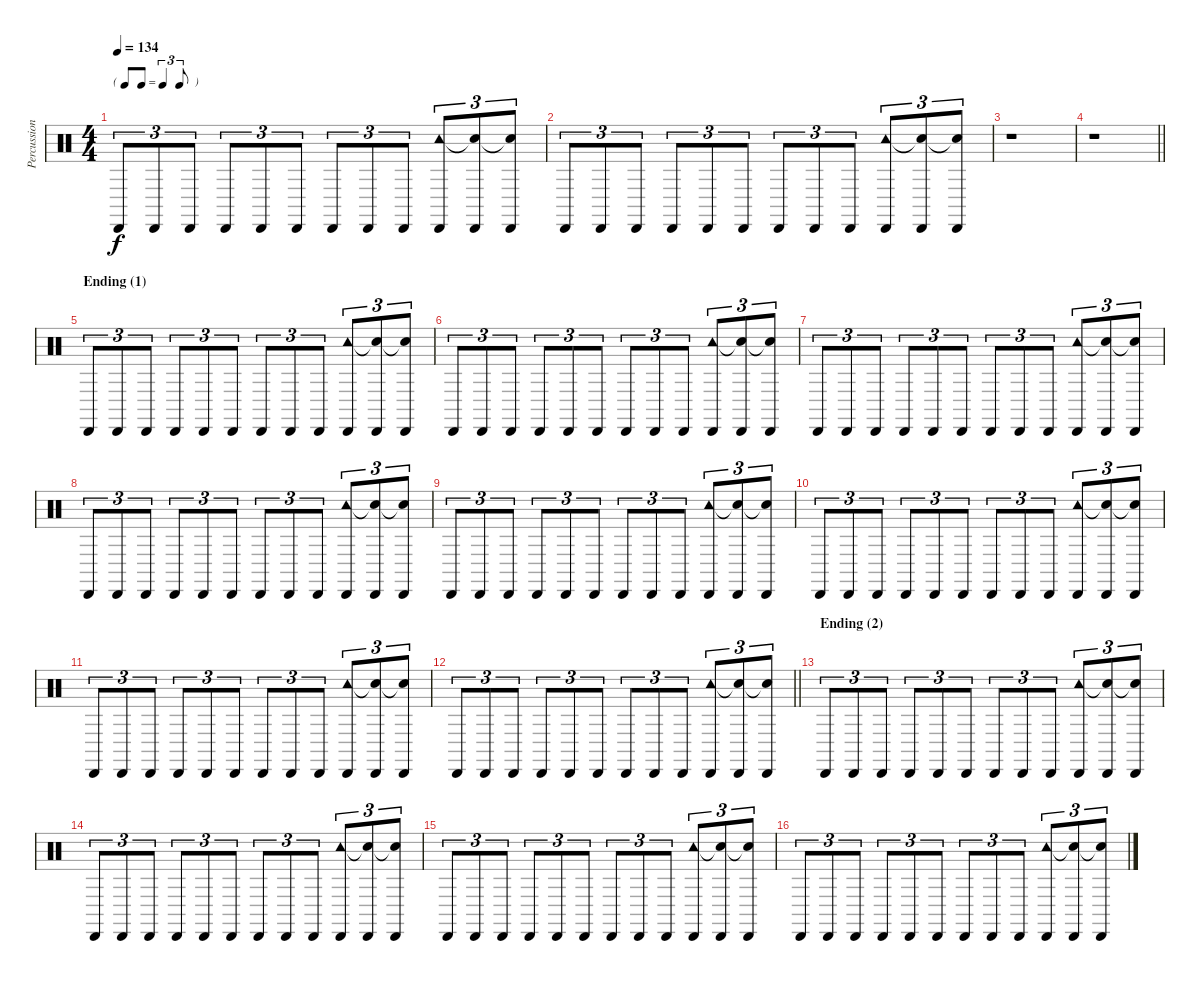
\track ("Percussion" "Percussion") {instrument percussion}
\staff {score}
\articulation defaults
\ts (4 4)
\tf triplet8th
\tempo 134
\clef neutral
\ks c "Cabasa (hit)".8{tu (3 2) dy f} "Cabasa (hit)".8{tu (3 2)} "Cabasa (hit)".8{tu (3 2)} "Cabasa (hit)".8{tu (3 2)} "Cabasa (hit)".8{tu (3 2)} "Cabasa (hit)".8{tu (3 2)} "Cabasa (hit)".8{tu (3 2)} "Cabasa (hit)".8{tu (3 2)} "Cabasa (hit)".8{tu (3 2)}
("Cabasa (hit)" "Tambourine (hit)").8{tu (3 2)} ("Cabasa (hit)" "Snare (hit)"{t}).8{tu (3 2)} ("Cabasa (hit)" "Snare (hit)"{t}).8{tu (3 2)} |
"Cabasa (hit)".8{tu (3 2)} "Cabasa (hit)".8{tu (3 2)} "Cabasa (hit)".8{tu (3 2)} "Cabasa (hit)".8{tu (3 2)} "Cabasa (hit)".8{tu (3 2)} "Cabasa (hit)".8{tu (3 2)} "Cabasa (hit)".8{tu (3 2)} "Cabasa (hit)".8{tu (3 2)} "Cabasa (hit)".8{tu (3 2)} ("Cabasa (hit)" "Tambourine (hit)").8{tu (3 2)} ("Cabasa (hit)" "Snare (hit)"{t}).8{tu (3 2)} ("Cabasa (hit)" "Snare (hit)"{t}).8{tu (3 2)} |
r.1 |
\barLineRight lightlight
r.1 |
\section ("" "Ending (1)")
"Cabasa (hit)".8{tu (3 2)} "Cabasa (hit)".8{tu (3 2)} "Cabasa (hit)".8{tu (3 2)} "Cabasa (hit)".8{tu (3 2)} "Cabasa (hit)".8{tu (3 2)} "Cabasa (hit)".8{tu (3 2)} "Cabasa (hit)".8{tu (3 2)} "Cabasa (hit)".8{tu (3 2)} "Cabasa (hit)".8{tu (3 2)} ("Cabasa (hit)" "Tambourine (hit)").8{tu (3 2)} ("Cabasa (hit)" "Snare (hit)"{t}).8{tu (3 2)} ("Cabasa (hit)" "Snare (hit)"{t}).8{tu (3 2)} |
"Cabasa (hit)".8{tu (3 2)} "Cabasa (hit)".8{tu (3 2)} "Cabasa (hit)".8{tu (3 2)} "Cabasa (hit)".8{tu (3 2)} "Cabasa (hit)".8{tu (3 2)} "Cabasa (hit)".8{tu (3 2)} "Cabasa (hit)".8{tu (3 2)} "Cabasa (hit)".8{tu (3 2)} "Cabasa (hit)".8{tu (3 2)} ("Cabasa (hit)" "Tambourine (hit)").8{tu (3 2)} ("Cabasa (hit)" "Snare (hit)"{t}).8{tu (3 2)} ("Cabasa (hit)" "Snare (hit)"{t}).8{tu (3 2)} |
"Cabasa (hit)".8{tu (3 2)} "Cabasa (hit)".8{tu (3 2)} "Cabasa (hit)".8{tu (3 2)} "Cabasa (hit)".8{tu (3 2)} "Cabasa (hit)".8{tu (3 2)} "Cabasa (hit)".8{tu (3 2)} "Cabasa (hit)".8{tu (3 2)} "Cabasa (hit)".8{tu (3 2)} "Cabasa (hit)".8{tu (3 2)} ("Cabasa (hit)" "Tambourine (hit)").8{tu (3 2)} ("Cabasa (hit)" "Snare (hit)"{t}).8{tu (3 2)} ("Cabasa (hit)" "Snare (hit)"{t}).8{tu (3 2)} |
"Cabasa (hit)".8{tu (3 2)} "Cabasa (hit)".8{tu (3 2)} "Cabasa (hit)".8{tu (3 2)} "Cabasa (hit)".8{tu (3 2)} "Cabasa (hit)".8{tu (3 2)} "Cabasa (hit)".8{tu (3 2)} "Cabasa (hit)".8{tu (3 2)} "Cabasa (hit)".8{tu (3 2)} "Cabasa (hit)".8{tu (3 2)} ("Cabasa (hit)" "Tambourine (hit)").8{tu (3 2)} ("Cabasa (hit)" "Snare (hit)"{t}).8{tu (3 2)} ("Cabasa (hit)" "Snare (hit)"{t}).8{tu (3 2)} |
"Cabasa (hit)".8{tu (3 2)} "Cabasa (hit)".8{tu (3 2)} "Cabasa (hit)".8{tu (3 2)} "Cabasa (hit)".8{tu (3 2)} "Cabasa (hit)".8{tu (3 2)} "Cabasa (hit)".8{tu (3 2)} "Cabasa (hit)".8{tu (3 2)} "Cabasa (hit)".8{tu (3 2)} "Cabasa (hit)".8{tu (3 2)} ("Cabasa (hit)" "Tambourine (hit)").8{tu (3 2)} ("Cabasa (hit)" "Snare (hit)"{t}).8{tu (3 2)} ("Cabasa (hit)" "Snare (hit)"{t}).8{tu (3 2)} |
"Cabasa (hit)".8{tu (3 2)} "Cabasa (hit)".8{tu (3 2)} "Cabasa (hit)".8{tu (3 2)} "Cabasa (hit)".8{tu (3 2)} "Cabasa (hit)".8{tu (3 2)} "Cabasa (hit)".8{tu (3 2)} "Cabasa (hit)".8{tu (3 2)} "Cabasa (hit)".8{tu (3 2)} "Cabasa (hit)".8{tu (3 2)} ("Cabasa (hit)" "Tambourine (hit)").8{tu (3 2)} ("Cabasa (hit)" "Snare (hit)"{t}).8{tu (3 2)} ("Cabasa (hit)" "Snare (hit)"{t}).8{tu (3 2)} |
"Cabasa (hit)".8{tu (3 2)} "Cabasa (hit)".8{tu (3 2)} "Cabasa (hit)".8{tu (3 2)} "Cabasa (hit)".8{tu (3 2)} "Cabasa (hit)".8{tu (3 2)} "Cabasa (hit)".8{tu (3 2)} "Cabasa (hit)".8{tu (3 2)} "Cabasa (hit)".8{tu (3 2)} "Cabasa (hit)".8{tu (3 2)} ("Cabasa (hit)" "Tambourine (hit)").8{tu (3 2)} ("Cabasa (hit)" "Snare (hit)"{t}).8{tu (3 2)} ("Cabasa (hit)" "Snare (hit)"{t}).8{tu (3 2)} |
\barLineRight lightlight "Cabasa (hit)".8{tu (3 2)} "Cabasa (hit)".8{tu (3 2)} "Cabasa (hit)".8{tu (3 2)} "Cabasa (hit)".8{tu (3 2)} "Cabasa (hit)".8{tu (3 2)} "Cabasa (hit)".8{tu (3 2)} "Cabasa (hit)".8{tu (3 2)} "Cabasa (hit)".8{tu (3 2)} "Cabasa (hit)".8{tu (3 2)}
("Cabasa (hit)" "Tambourine (hit)").8{tu (3 2)} ("Cabasa (hit)" "Snare (hit)"{t}).8{tu (3 2)} ("Cabasa (hit)" "Snare (hit)"{t}).8{tu (3 2)} |
\section ("" "Ending (2)")
"Cabasa (hit)".8{tu (3 2)} "Cabasa (hit)".8{tu (3 2)} "Cabasa (hit)".8{tu (3 2)} "Cabasa (hit)".8{tu (3 2)} "Cabasa (hit)".8{tu (3 2)} "Cabasa (hit)".8{tu (3 2)} "Cabasa (hit)".8{tu (3 2)} "Cabasa (hit)".8{tu (3 2)} "Cabasa (hit)".8{tu (3 2)} ("Cabasa (hit)" "Tambourine (hit)").8{tu (3 2)} ("Cabasa (hit)" "Snare (hit)"{t}).8{tu (3 2)} ("Cabasa (hit)" "Snare (hit)"{t}).8{tu (3 2)} |
"Cabasa (hit)".8{tu (3 2)} "Cabasa (hit)".8{tu (3 2)} "Cabasa (hit)".8{tu (3 2)} "Cabasa (hit)".8{tu (3 2)} "Cabasa (hit)".8{tu (3 2)} "Cabasa (hit)".8{tu (3 2)} "Cabasa (hit)".8{tu (3 2)} "Cabasa (hit)".8{tu (3 2)} "Cabasa (hit)".8{tu (3 2)} ("Cabasa (hit)" "Tambourine (hit)").8{tu (3 2)} ("Cabasa (hit)" "Snare (hit)"{t}).8{tu (3 2)} ("Cabasa (hit)" "Snare (hit)"{t}).8{tu (3 2)} |
"Cabasa (hit)".8{tu (3 2)} "Cabasa (hit)".8{tu (3 2)} "Cabasa (hit)".8{tu (3 2)} "Cabasa (hit)".8{tu (3 2)} "Cabasa (hit)".8{tu (3 2)} "Cabasa (hit)".8{tu (3 2)} "Cabasa (hit)".8{tu (3 2)} "Cabasa (hit)".8{tu (3 2)} "Cabasa (hit)".8{tu (3 2)} ("Cabasa (hit)" "Tambourine (hit)").8{tu (3 2)} ("Cabasa (hit)" "Snare (hit)"{t}).8{tu (3 2)} ("Cabasa (hit)" "Snare (hit)"{t}).8{tu (3 2)} |
"Cabasa (hit)".8{tu (3 2)} "Cabasa (hit)".8{tu (3 2)} "Cabasa (hit)".8{tu (3 2)} "Cabasa (hit)".8{tu (3 2)} "Cabasa (hit)".8{tu (3 2)} "Cabasa (hit)".8{tu (3 2)} "Cabasa (hit)".8{tu (3 2)} "Cabasa (hit)".8{tu (3 2)} "Cabasa (hit)".8{tu (3 2)} ("Cabasa (hit)" "Tambourine (hit)").8{tu (3 2)} ("Cabasa (hit)" "Snare (hit)"{t}).8{tu (3 2)} ("Cabasa (hit)" "Snare (hit)"{t}).8{tu (3 2)}
